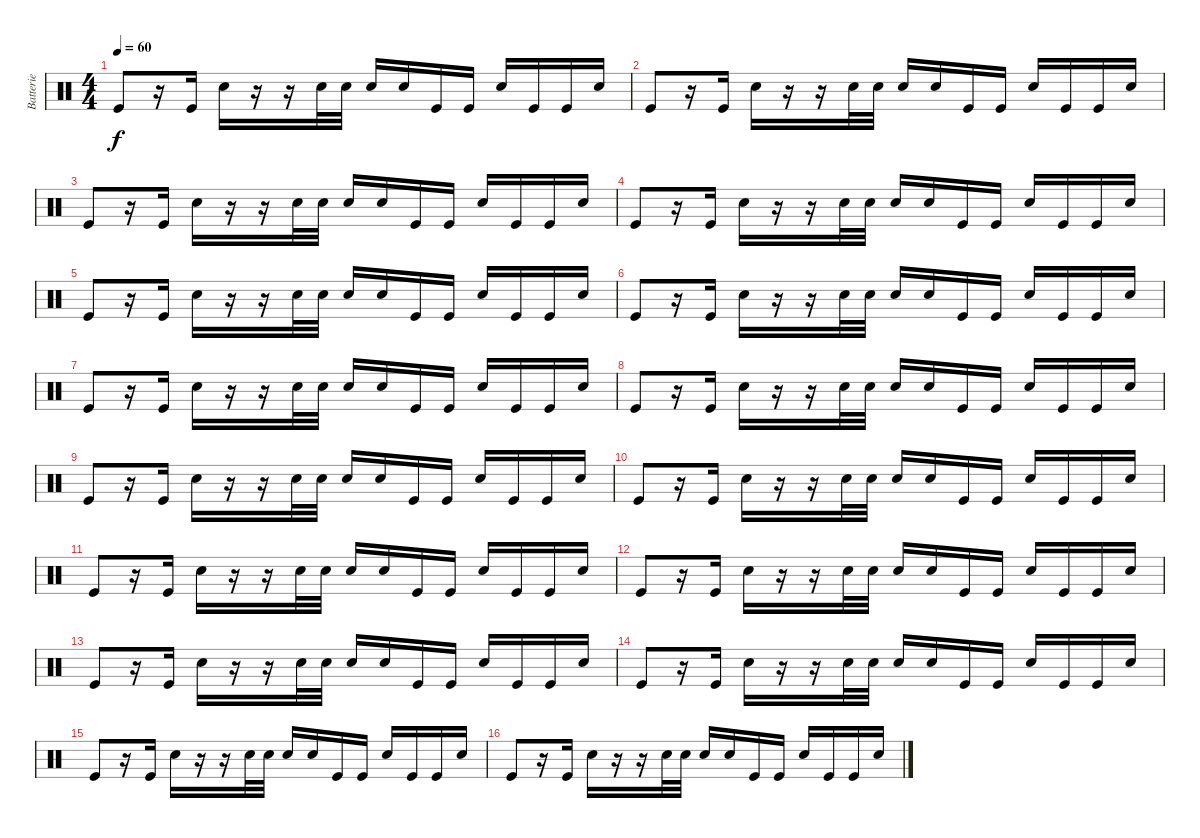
\track ("Batterie" "Batterie") {instrument percussion}
\staff {score}
\articulation defaults
\ts (4 4)
\tempo 60
\clef neutral
\ks c "Kick (hit)".8{dy f}
r.16 "Kick (hit)".16 "Snare (hit) 2".16 r.16 r.16 "Snare (hit) 2".32 "Snare (hit) 2".32 "Snare (hit) 2".16 "Electric Snare (hit)".16 "Kick (hit)".16 "Kick (hit)".16 "Snare (hit) 2".16 "Kick (hit)".16 "Kick (hit)".16 "Snare (hit) 2".16 |
"Kick (hit)".8 r.16 "Kick (hit)".16 "Snare (hit) 2".16 r.16 r.16 "Snare (hit) 2".32 "Snare (hit) 2".32 "Snare (hit) 2".16 "Electric Snare (hit)".16 "Kick (hit)".16 "Kick (hit)".16 "Snare (hit) 2".16 "Kick (hit)".16 "Kick (hit)".16 "Snare (hit) 2".16 |
"Kick (hit)".8 r.16 "Kick (hit)".16 "Snare (hit) 2".16 r.16 r.16 "Snare (hit) 2".32 "Snare (hit) 2".32 "Snare (hit) 2".16 "Electric Snare (hit)".16 "Kick (hit)".16 "Kick (hit)".16 "Snare (hit) 2".16 "Kick (hit)".16 "Kick (hit)".16 "Snare (hit) 2".16 |
"Kick (hit)".8 r.16 "Kick (hit)".16 "Snare (hit) 2".16 r.16 r.16 "Snare (hit) 2".32 "Snare (hit) 2".32 "Snare (hit) 2".16 "Electric Snare (hit)".16 "Kick (hit)".16 "Kick (hit)".16 "Snare (hit) 2".16 "Kick (hit)".16 "Kick (hit)".16 "Snare (hit) 2".16 |
"Kick (hit)".8 r.16 "Kick (hit)".16 "Snare (hit) 2".16 r.16 r.16 "Snare (hit) 2".32 "Snare (hit) 2".32 "Snare (hit) 2".16 "Electric Snare (hit)".16 "Kick (hit)".16 "Kick (hit)".16 "Snare (hit) 2".16 "Kick (hit)".16 "Kick (hit)".16 "Snare (hit) 2".16 |
"Kick (hit)".8 r.16 "Kick (hit)".16 "Snare (hit) 2".16 r.16 r.16 "Snare (hit) 2".32 "Snare (hit) 2".32 "Snare (hit) 2".16 "Electric Snare (hit)".16 "Kick (hit)".16 "Kick (hit)".16 "Snare (hit) 2".16 "Kick (hit)".16 "Kick (hit)".16 "Snare (hit) 2".16 |
"Kick (hit)".8 r.16 "Kick (hit)".16 "Snare (hit) 2".16 r.16 r.16 "Snare (hit) 2".32 "Snare (hit) 2".32 "Snare (hit) 2".16 "Electric Snare (hit)".16 "Kick (hit)".16 "Kick (hit)".16 "Snare (hit) 2".16 "Kick (hit)".16 "Kick (hit)".16 "Snare (hit) 2".16 |
"Kick (hit)".8 r.16 "Kick (hit)".16 "Snare (hit) 2".16 r.16 r.16 "Snare (hit) 2".32 "Snare (hit) 2".32 "Snare (hit) 2".16 "Electric Snare (hit)".16 "Kick (hit)".16 "Kick (hit)".16 "Snare (hit) 2".16 "Kick (hit)".16 "Kick (hit)".16 "Snare (hit) 2".16 |
"Kick (hit)".8 r.16 "Kick (hit)".16 "Snare (hit) 2".16 r.16 r.16 "Snare (hit) 2".32 "Snare (hit) 2".32 "Snare (hit) 2".16 "Electric Snare (hit)".16 "Kick (hit)".16 "Kick (hit)".16 "Snare (hit) 2".16 "Kick (hit)".16 "Kick (hit)".16 "Snare (hit) 2".16 |
"Kick (hit)".8 r.16 "Kick (hit)".16 "Snare (hit) 2".16 r.16 r.16 "Snare (hit) 2".32 "Snare (hit) 2".32 "Snare (hit) 2".16 "Electric Snare (hit)".16 "Kick (hit)".16 "Kick (hit)".16 "Snare (hit) 2".16 "Kick (hit)".16 "Kick (hit)".16 "Snare (hit) 2".16 |
"Kick (hit)".8 r.16 "Kick (hit)".16 "Snare (hit) 2".16 r.16 r.16 "Snare (hit) 2".32 "Snare (hit) 2".32 "Snare (hit) 2".16 "Electric Snare (hit)".16 "Kick (hit)".16 "Kick (hit)".16 "Snare (hit) 2".16 "Kick (hit)".16 "Kick (hit)".16 "Snare (hit) 2".16 |
"Kick (hit)".8 r.16 "Kick (hit)".16 "Snare (hit) 2".16 r.16 r.16 "Snare (hit) 2".32 "Snare (hit) 2".32 "Snare (hit) 2".16 "Electric Snare (hit)".16 "Kick (hit)".16 "Kick (hit)".16 "Snare (hit) 2".16 "Kick (hit)".16 "Kick (hit)".16 "Snare (hit) 2".16 |
"Kick (hit)".8 r.16 "Kick (hit)".16 "Snare (hit) 2".16 r.16 r.16 "Snare (hit) 2".32 "Snare (hit) 2".32 "Snare (hit) 2".16 "Electric Snare (hit)".16 "Kick (hit)".16 "Kick (hit)".16 "Snare (hit) 2".16 "Kick (hit)".16 "Kick (hit)".16 "Snare (hit) 2".16 |
"Kick (hit)".8 r.16 "Kick (hit)".16 "Snare (hit) 2".16 r.16 r.16 "Snare (hit) 2".32 "Snare (hit) 2".32 "Snare (hit) 2".16 "Electric Snare (hit)".16 "Kick (hit)".16 "Kick (hit)".16 "Snare (hit) 2".16 "Kick (hit)".16 "Kick (hit)".16 "Snare (hit) 2".16 |
"Kick (hit)".8 r.16 "Kick (hit)".16 "Snare (hit) 2".16 r.16 r.16 "Snare (hit) 2".32 "Snare (hit) 2".32 "Snare (hit) 2".16 "Electric Snare (hit)".16 "Kick (hit)".16 "Kick (hit)".16 "Snare (hit) 2".16 "Kick (hit)".16 "Kick (hit)".16 "Snare (hit) 2".16 |
"Kick (hit)".8 r.16 "Kick (hit)".16 "Snare (hit) 2".16 r.16 r.16 "Snare (hit) 2".32 "Snare (hit) 2".32 "Snare (hit) 2".16 "Electric Snare (hit)".16 "Kick (hit)".16 "Kick (hit)".16 "Snare (hit) 2".16 "Kick (hit)".16 "Kick (hit)".16 "Snare (hit) 2".16
